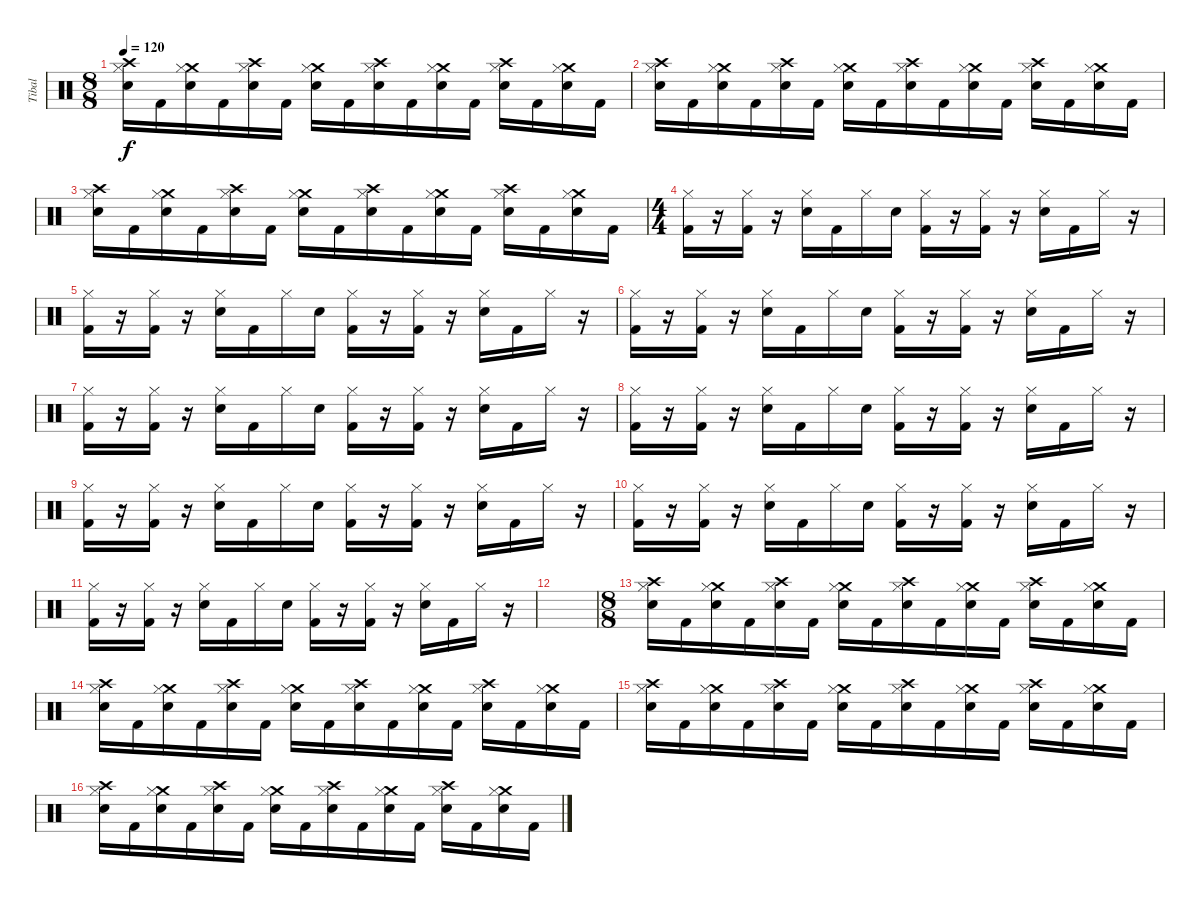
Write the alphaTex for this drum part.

\track ("Tibal" "Tibal") {instrument percussion}
\staff {score}
\articulation defaults
\ts (8 8)
\tempo 120
\clef neutral
\ks c
("Crash high (hit)" "Snare (hit) 2" "Hi-Hat (closed)").16{dy f} "Kick (hit) 2".16 ("Crash medium (hit)" "Snare (hit) 2" "Hi-Hat (closed)").16 "Kick (hit) 2".16 ("Crash high (hit)" "Snare (hit) 2" "Hi-Hat (closed)").16 "Kick (hit) 2".16 ("Crash medium (hit)" "Snare (hit) 2" "Hi-Hat (closed)").16 "Kick (hit) 2".16 ("Crash high (hit)" "Snare (hit) 2" "Hi-Hat (closed)").16 "Kick (hit) 2".16 ("Crash medium (hit)" "Snare (hit) 2" "Hi-Hat (closed)").16 "Kick (hit) 2".16 ("Crash high (hit)" "Snare (hit) 2" "Hi-Hat (closed)").16 "Kick (hit) 2".16 ("Crash medium (hit)" "Snare (hit) 2" "Hi-Hat (closed)").16 "Kick (hit) 2".16 |
("Crash high (hit)" "Snare (hit) 2" "Hi-Hat (closed)").16 "Kick (hit) 2".16 ("Crash medium (hit)" "Snare (hit) 2" "Hi-Hat (closed)").16 "Kick (hit) 2".16 ("Crash high (hit)" "Snare (hit) 2" "Hi-Hat (closed)").16 "Kick (hit) 2".16 ("Crash medium (hit)" "Snare (hit) 2" "Hi-Hat (closed)").16 "Kick (hit) 2".16 ("Crash high (hit)" "Snare (hit) 2" "Hi-Hat (closed)").16 "Kick (hit) 2".16 ("Crash medium (hit)" "Snare (hit) 2" "Hi-Hat (closed)").16 "Kick (hit) 2".16 ("Crash high (hit)" "Snare (hit) 2" "Hi-Hat (closed)").16 "Kick (hit) 2".16 ("Crash medium (hit)" "Snare (hit) 2" "Hi-Hat (closed)").16 "Kick (hit) 2".16 |
("Crash high (hit)" "Snare (hit) 2" "Hi-Hat (closed)").16 "Kick (hit) 2".16 ("Crash medium (hit)" "Snare (hit) 2" "Hi-Hat (closed)").16 "Kick (hit) 2".16 ("Crash high (hit)" "Snare (hit) 2" "Hi-Hat (closed)").16 "Kick (hit) 2".16 ("Crash medium (hit)" "Snare (hit) 2" "Hi-Hat (closed)").16 "Kick (hit) 2".16 ("Crash high (hit)" "Snare (hit) 2" "Hi-Hat (closed)").16 "Kick (hit) 2".16 ("Crash medium (hit)" "Snare (hit) 2" "Hi-Hat (closed)").16 "Kick (hit) 2".16 ("Crash high (hit)" "Snare (hit) 2" "Hi-Hat (closed)").16 "Kick (hit) 2".16 ("Crash medium (hit)" "Snare (hit) 2" "Hi-Hat (closed)").16 "Kick (hit) 2".16 |
\ts (4 4)
("Hi-Hat (closed)" "Kick (hit) 2").16 r.16 ("Hi-Hat (closed)" "Kick (hit) 2").16 r.16 ("Hi-Hat (closed)" "Snare (hit) 2").16 "Kick (hit) 2".16 "Hi-Hat (closed)".16 "Snare (hit) 2".16 ("Hi-Hat (closed)" "Kick (hit) 2").16 r.16 ("Hi-Hat (closed)" "Kick (hit) 2").16 r.16 ("Hi-Hat (closed)" "Snare (hit) 2").16 "Kick (hit) 2".16 "Hi-Hat (closed)".16 r.16 |
("Hi-Hat (closed)" "Kick (hit) 2").16 r.16 ("Hi-Hat (closed)" "Kick (hit) 2").16 r.16 ("Hi-Hat (closed)" "Snare (hit) 2").16 "Kick (hit) 2".16 "Hi-Hat (closed)".16 "Snare (hit) 2".16 ("Hi-Hat (closed)" "Kick (hit) 2").16 r.16 ("Hi-Hat (closed)" "Kick (hit) 2").16 r.16 ("Hi-Hat (closed)" "Snare (hit) 2").16 "Kick (hit) 2".16 "Hi-Hat (closed)".16 r.16 |
("Hi-Hat (closed)" "Kick (hit) 2").16 r.16 ("Hi-Hat (closed)" "Kick (hit) 2").16 r.16 ("Hi-Hat (closed)" "Snare (hit) 2").16 "Kick (hit) 2".16 "Hi-Hat (closed)".16 "Snare (hit) 2".16 ("Hi-Hat (closed)" "Kick (hit) 2").16 r.16 ("Hi-Hat (closed)" "Kick (hit) 2").16 r.16 ("Hi-Hat (closed)" "Snare (hit) 2").16 "Kick (hit) 2".16 "Hi-Hat (closed)".16 r.16 |
("Hi-Hat (closed)" "Kick (hit) 2").16 r.16 ("Hi-Hat (closed)" "Kick (hit) 2").16 r.16 ("Hi-Hat (closed)" "Snare (hit) 2").16 "Kick (hit) 2".16 "Hi-Hat (closed)".16 "Snare (hit) 2".16 ("Hi-Hat (closed)" "Kick (hit) 2").16 r.16 ("Hi-Hat (closed)" "Kick (hit) 2").16 r.16 ("Hi-Hat (closed)" "Snare (hit) 2").16 "Kick (hit) 2".16 "Hi-Hat (closed)".16 r.16 |
("Hi-Hat (closed)" "Kick (hit) 2").16 r.16 ("Hi-Hat (closed)" "Kick (hit) 2").16 r.16 ("Hi-Hat (closed)" "Snare (hit) 2").16 "Kick (hit) 2".16 "Hi-Hat (closed)".16 "Snare (hit) 2".16 ("Hi-Hat (closed)" "Kick (hit) 2").16 r.16 ("Hi-Hat (closed)" "Kick (hit) 2").16 r.16 ("Hi-Hat (closed)" "Snare (hit) 2").16 "Kick (hit) 2".16 "Hi-Hat (closed)".16 r.16 |
("Hi-Hat (closed)" "Kick (hit) 2").16 r.16 ("Hi-Hat (closed)" "Kick (hit) 2").16 r.16 ("Hi-Hat (closed)" "Snare (hit) 2").16 "Kick (hit) 2".16 "Hi-Hat (closed)".16 "Snare (hit) 2".16 ("Hi-Hat (closed)" "Kick (hit) 2").16 r.16 ("Hi-Hat (closed)" "Kick (hit) 2").16 r.16 ("Hi-Hat (closed)" "Snare (hit) 2").16 "Kick (hit) 2".16 "Hi-Hat (closed)".16 r.16 |
("Hi-Hat (closed)" "Kick (hit) 2").16 r.16 ("Hi-Hat (closed)" "Kick (hit) 2").16 r.16 ("Hi-Hat (closed)" "Snare (hit) 2").16 "Kick (hit) 2".16 "Hi-Hat (closed)".16 "Snare (hit) 2".16 ("Hi-Hat (closed)" "Kick (hit) 2").16 r.16 ("Hi-Hat (closed)" "Kick (hit) 2").16 r.16 ("Hi-Hat (closed)" "Snare (hit) 2").16 "Kick (hit) 2".16 "Hi-Hat (closed)".16 r.16 |
("Hi-Hat (closed)" "Kick (hit) 2").16 r.16 ("Hi-Hat (closed)" "Kick (hit) 2").16 r.16 ("Hi-Hat (closed)" "Snare (hit) 2").16 "Kick (hit) 2".16 "Hi-Hat (closed)".16 "Snare (hit) 2".16 ("Hi-Hat (closed)" "Kick (hit) 2").16 r.16 ("Hi-Hat (closed)" "Kick (hit) 2").16 r.16 ("Hi-Hat (closed)" "Snare (hit) 2").16 "Kick (hit) 2".16 "Hi-Hat (closed)".16 r.16 |
|
\ts (8 8)
("Crash high (hit)" "Snare (hit) 2" "Hi-Hat (closed)").16 "Kick (hit) 2".16 ("Crash medium (hit)" "Snare (hit) 2" "Hi-Hat (closed)").16 "Kick (hit) 2".16 ("Crash high (hit)" "Snare (hit) 2" "Hi-Hat (closed)").16 "Kick (hit) 2".16 ("Crash medium (hit)" "Snare (hit) 2" "Hi-Hat (closed)").16 "Kick (hit) 2".16 ("Crash high (hit)" "Snare (hit) 2" "Hi-Hat (closed)").16 "Kick (hit) 2".16 ("Crash medium (hit)" "Snare (hit) 2" "Hi-Hat (closed)").16 "Kick (hit) 2".16 ("Crash high (hit)" "Snare (hit) 2" "Hi-Hat (closed)").16 "Kick (hit) 2".16 ("Crash medium (hit)" "Snare (hit) 2" "Hi-Hat (closed)").16 "Kick (hit) 2".16 |
("Crash high (hit)" "Snare (hit) 2" "Hi-Hat (closed)").16 "Kick (hit) 2".16 ("Crash medium (hit)" "Snare (hit) 2" "Hi-Hat (closed)").16 "Kick (hit) 2".16 ("Crash high (hit)" "Snare (hit) 2" "Hi-Hat (closed)").16 "Kick (hit) 2".16 ("Crash medium (hit)" "Snare (hit) 2" "Hi-Hat (closed)").16 "Kick (hit) 2".16 ("Crash high (hit)" "Snare (hit) 2" "Hi-Hat (closed)").16 "Kick (hit) 2".16 ("Crash medium (hit)" "Snare (hit) 2" "Hi-Hat (closed)").16 "Kick (hit) 2".16 ("Crash high (hit)" "Snare (hit) 2" "Hi-Hat (closed)").16 "Kick (hit) 2".16 ("Crash medium (hit)" "Snare (hit) 2" "Hi-Hat (closed)").16 "Kick (hit) 2".16 |
("Crash high (hit)" "Snare (hit) 2" "Hi-Hat (closed)").16 "Kick (hit) 2".16 ("Crash medium (hit)" "Snare (hit) 2" "Hi-Hat (closed)").16 "Kick (hit) 2".16 ("Crash high (hit)" "Snare (hit) 2" "Hi-Hat (closed)").16 "Kick (hit) 2".16 ("Crash medium (hit)" "Snare (hit) 2" "Hi-Hat (closed)").16 "Kick (hit) 2".16 ("Crash high (hit)" "Snare (hit) 2" "Hi-Hat (closed)").16 "Kick (hit) 2".16 ("Crash medium (hit)" "Snare (hit) 2" "Hi-Hat (closed)").16 "Kick (hit) 2".16 ("Crash high (hit)" "Snare (hit) 2" "Hi-Hat (closed)").16 "Kick (hit) 2".16 ("Crash medium (hit)" "Snare (hit) 2" "Hi-Hat (closed)").16 "Kick (hit) 2".16 |
("Crash high (hit)" "Snare (hit) 2" "Hi-Hat (closed)").16 "Kick (hit) 2".16 ("Crash medium (hit)" "Snare (hit) 2" "Hi-Hat (closed)").16 "Kick (hit) 2".16 ("Crash high (hit)" "Snare (hit) 2" "Hi-Hat (closed)").16 "Kick (hit) 2".16 ("Crash medium (hit)" "Snare (hit) 2" "Hi-Hat (closed)").16 "Kick (hit) 2".16 ("Crash high (hit)" "Snare (hit) 2" "Hi-Hat (closed)").16 "Kick (hit) 2".16 ("Crash medium (hit)" "Snare (hit) 2" "Hi-Hat (closed)").16 "Kick (hit) 2".16 ("Crash high (hit)" "Snare (hit) 2" "Hi-Hat (closed)").16 "Kick (hit) 2".16 ("Crash medium (hit)" "Snare (hit) 2" "Hi-Hat (closed)").16 "Kick (hit) 2".16
